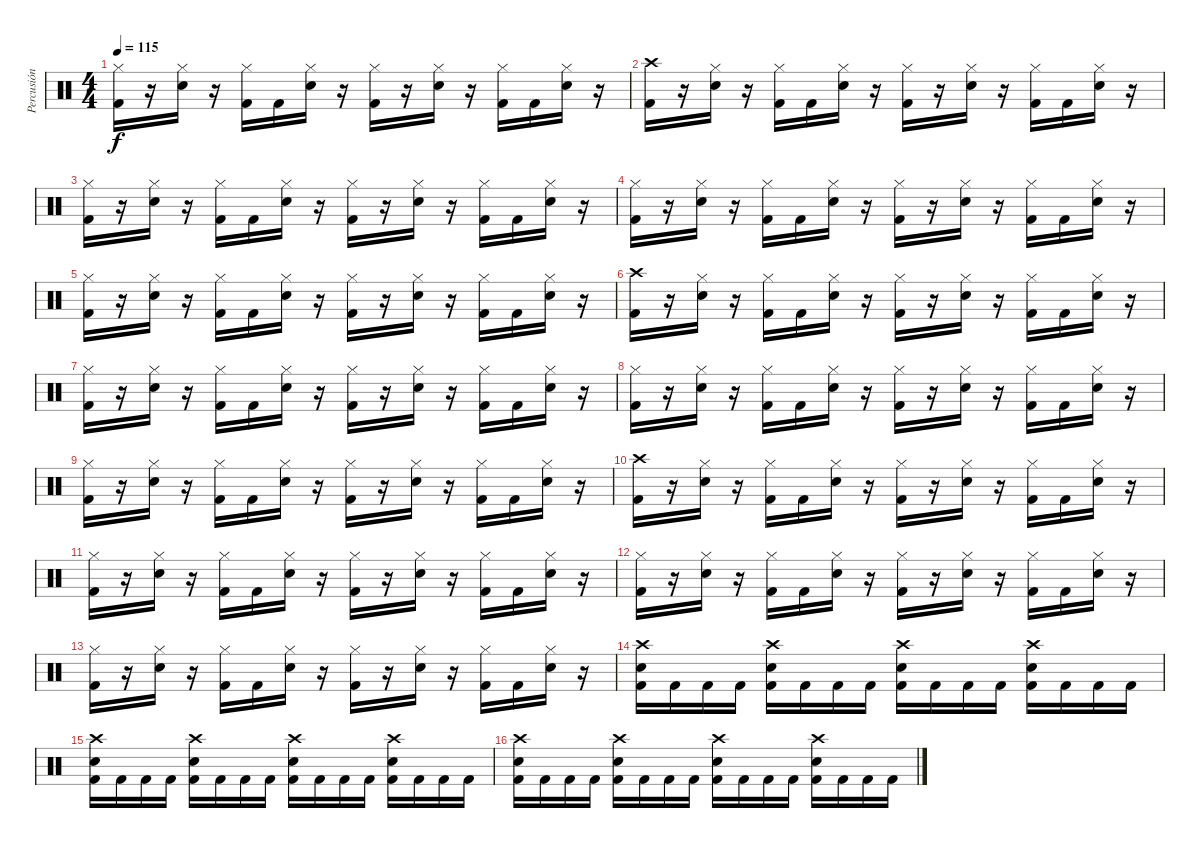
\track ("Percusión" "Percusión") {instrument percussion}
\staff {score}
\articulation defaults
\ts (4 4)
\tempo 115
\clef neutral
\ks c
("Hi-Hat (closed)" "Kick (hit) 2").16{dy f} r.16 ("Hi-Hat (closed)" "Electric Snare (hit)").16 r.16 ("Hi-Hat (closed)" "Kick (hit) 2").16 "Kick (hit) 2".16 ("Hi-Hat (closed)" "Electric Snare (hit)").16 r.16 ("Hi-Hat (closed)" "Kick (hit) 2").16 r.16 ("Hi-Hat (closed)" "Electric Snare (hit)").16 r.16 ("Hi-Hat (closed)" "Kick (hit) 2").16 "Kick (hit) 2".16 ("Hi-Hat (closed)" "Electric Snare (hit)").16 r.16 |
("Crash high (hit)" "Kick (hit) 2").16 r.16 ("Hi-Hat (closed)" "Electric Snare (hit)").16 r.16 ("Hi-Hat (closed)" "Kick (hit) 2").16 "Kick (hit) 2".16 ("Hi-Hat (closed)" "Electric Snare (hit)").16 r.16 ("Hi-Hat (closed)" "Kick (hit) 2").16 r.16 ("Hi-Hat (closed)" "Electric Snare (hit)").16 r.16 ("Hi-Hat (closed)" "Kick (hit) 2").16 "Kick (hit) 2".16 ("Hi-Hat (closed)" "Electric Snare (hit)").16 r.16 |
("Hi-Hat (closed)" "Kick (hit) 2").16 r.16 ("Hi-Hat (closed)" "Electric Snare (hit)").16 r.16 ("Hi-Hat (closed)" "Kick (hit) 2").16 "Kick (hit) 2".16 ("Hi-Hat (closed)" "Electric Snare (hit)").16 r.16 ("Hi-Hat (closed)" "Kick (hit) 2").16 r.16 ("Hi-Hat (closed)" "Electric Snare (hit)").16 r.16 ("Hi-Hat (closed)" "Kick (hit) 2").16 "Kick (hit) 2".16 ("Hi-Hat (closed)" "Electric Snare (hit)").16 r.16 |
("Hi-Hat (closed)" "Kick (hit) 2").16 r.16 ("Hi-Hat (closed)" "Electric Snare (hit)").16 r.16 ("Hi-Hat (closed)" "Kick (hit) 2").16 "Kick (hit) 2".16 ("Hi-Hat (closed)" "Electric Snare (hit)").16 r.16 ("Hi-Hat (closed)" "Kick (hit) 2").16 r.16 ("Hi-Hat (closed)" "Electric Snare (hit)").16 r.16 ("Hi-Hat (closed)" "Kick (hit) 2").16 "Kick (hit) 2".16 ("Hi-Hat (closed)" "Electric Snare (hit)").16 r.16 |
("Hi-Hat (closed)" "Kick (hit) 2").16 r.16 ("Hi-Hat (closed)" "Electric Snare (hit)").16 r.16 ("Hi-Hat (closed)" "Kick (hit) 2").16 "Kick (hit) 2".16 ("Hi-Hat (closed)" "Electric Snare (hit)").16 r.16 ("Hi-Hat (closed)" "Kick (hit) 2").16 r.16 ("Hi-Hat (closed)" "Electric Snare (hit)").16 r.16 ("Hi-Hat (closed)" "Kick (hit) 2").16 "Kick (hit) 2".16 ("Hi-Hat (closed)" "Electric Snare (hit)").16 r.16 |
("Crash high (hit)" "Kick (hit) 2").16 r.16 ("Hi-Hat (closed)" "Electric Snare (hit)").16 r.16 ("Hi-Hat (closed)" "Kick (hit) 2").16 "Kick (hit) 2".16 ("Hi-Hat (closed)" "Electric Snare (hit)").16 r.16 ("Hi-Hat (closed)" "Kick (hit) 2").16 r.16 ("Hi-Hat (closed)" "Electric Snare (hit)").16 r.16 ("Hi-Hat (closed)" "Kick (hit) 2").16 "Kick (hit) 2".16 ("Hi-Hat (closed)" "Electric Snare (hit)").16 r.16 |
("Hi-Hat (closed)" "Kick (hit) 2").16 r.16 ("Hi-Hat (closed)" "Electric Snare (hit)").16 r.16 ("Hi-Hat (closed)" "Kick (hit) 2").16 "Kick (hit) 2".16 ("Hi-Hat (closed)" "Electric Snare (hit)").16 r.16 ("Hi-Hat (closed)" "Kick (hit) 2").16 r.16 ("Hi-Hat (closed)" "Electric Snare (hit)").16 r.16 ("Hi-Hat (closed)" "Kick (hit) 2").16 "Kick (hit) 2".16 ("Hi-Hat (closed)" "Electric Snare (hit)").16 r.16 |
("Hi-Hat (closed)" "Kick (hit) 2").16 r.16 ("Hi-Hat (closed)" "Electric Snare (hit)").16 r.16 ("Hi-Hat (closed)" "Kick (hit) 2").16 "Kick (hit) 2".16 ("Hi-Hat (closed)" "Electric Snare (hit)").16 r.16 ("Hi-Hat (closed)" "Kick (hit) 2").16 r.16 ("Hi-Hat (closed)" "Electric Snare (hit)").16 r.16 ("Hi-Hat (closed)" "Kick (hit) 2").16 "Kick (hit) 2".16 ("Hi-Hat (closed)" "Electric Snare (hit)").16 r.16 |
("Hi-Hat (closed)" "Kick (hit) 2").16 r.16 ("Hi-Hat (closed)" "Electric Snare (hit)").16 r.16 ("Hi-Hat (closed)" "Kick (hit) 2").16 "Kick (hit) 2".16 ("Hi-Hat (closed)" "Electric Snare (hit)").16 r.16 ("Hi-Hat (closed)" "Kick (hit) 2").16 r.16 ("Hi-Hat (closed)" "Electric Snare (hit)").16 r.16 ("Hi-Hat (closed)" "Kick (hit) 2").16 "Kick (hit) 2".16 ("Hi-Hat (closed)" "Electric Snare (hit)").16 r.16 |
("Crash high (hit)" "Kick (hit) 2").16 r.16 ("Hi-Hat (closed)" "Electric Snare (hit)").16 r.16 ("Hi-Hat (closed)" "Kick (hit) 2").16 "Kick (hit) 2".16 ("Hi-Hat (closed)" "Electric Snare (hit)").16 r.16 ("Hi-Hat (closed)" "Kick (hit) 2").16 r.16 ("Hi-Hat (closed)" "Electric Snare (hit)").16 r.16 ("Hi-Hat (closed)" "Kick (hit) 2").16 "Kick (hit) 2".16 ("Hi-Hat (closed)" "Electric Snare (hit)").16 r.16 |
("Hi-Hat (closed)" "Kick (hit) 2").16 r.16 ("Hi-Hat (closed)" "Electric Snare (hit)").16 r.16 ("Hi-Hat (closed)" "Kick (hit) 2").16 "Kick (hit) 2".16 ("Hi-Hat (closed)" "Electric Snare (hit)").16 r.16 ("Hi-Hat (closed)" "Kick (hit) 2").16 r.16 ("Hi-Hat (closed)" "Electric Snare (hit)").16 r.16 ("Hi-Hat (closed)" "Kick (hit) 2").16 "Kick (hit) 2".16 ("Hi-Hat (closed)" "Electric Snare (hit)").16 r.16 |
("Hi-Hat (closed)" "Kick (hit) 2").16 r.16 ("Hi-Hat (closed)" "Electric Snare (hit)").16 r.16 ("Hi-Hat (closed)" "Kick (hit) 2").16 "Kick (hit) 2".16 ("Hi-Hat (closed)" "Electric Snare (hit)").16 r.16 ("Hi-Hat (closed)" "Kick (hit) 2").16 r.16 ("Hi-Hat (closed)" "Electric Snare (hit)").16 r.16 ("Hi-Hat (closed)" "Kick (hit) 2").16 "Kick (hit) 2".16 ("Hi-Hat (closed)" "Electric Snare (hit)").16 r.16 |
("Hi-Hat (closed)" "Kick (hit) 2").16 r.16 ("Hi-Hat (closed)" "Electric Snare (hit)").16 r.16 ("Hi-Hat (closed)" "Kick (hit) 2").16 "Kick (hit) 2".16 ("Hi-Hat (closed)" "Electric Snare (hit)").16 r.16 ("Hi-Hat (closed)" "Kick (hit) 2").16 r.16 ("Hi-Hat (closed)" "Electric Snare (hit)").16 r.16 ("Hi-Hat (closed)" "Kick (hit) 2").16 "Kick (hit) 2".16 ("Hi-Hat (closed)" "Electric Snare (hit)").16 r.16 |
("Crash high (hit)" "Electric Snare (hit)" "Kick (hit) 2").16 "Kick (hit) 2".16 "Kick (hit) 2".16 "Kick (hit) 2".16 ("Crash high (hit)" "Electric Snare (hit)" "Kick (hit) 2").16 "Kick (hit) 2".16 "Kick (hit) 2".16 "Kick (hit) 2".16 ("Crash high (hit)" "Electric Snare (hit)" "Kick (hit) 2").16 "Kick (hit) 2".16 "Kick (hit) 2".16 "Kick (hit) 2".16 ("Crash high (hit)" "Electric Snare (hit)" "Kick (hit) 2").16 "Kick (hit) 2".16 "Kick (hit) 2".16 "Kick (hit) 2".16 |
("Crash high (hit)" "Electric Snare (hit)" "Kick (hit) 2").16 "Kick (hit) 2".16 "Kick (hit) 2".16 "Kick (hit) 2".16 ("Crash high (hit)" "Electric Snare (hit)" "Kick (hit) 2").16 "Kick (hit) 2".16 "Kick (hit) 2".16 "Kick (hit) 2".16 ("Crash high (hit)" "Electric Snare (hit)" "Kick (hit) 2").16 "Kick (hit) 2".16 "Kick (hit) 2".16 "Kick (hit) 2".16 ("Crash high (hit)" "Electric Snare (hit)" "Kick (hit) 2").16 "Kick (hit) 2".16 "Kick (hit) 2".16 "Kick (hit) 2".16 |
("Crash high (hit)" "Electric Snare (hit)" "Kick (hit) 2").16 "Kick (hit) 2".16 "Kick (hit) 2".16 "Kick (hit) 2".16 ("Crash high (hit)" "Electric Snare (hit)" "Kick (hit) 2").16 "Kick (hit) 2".16 "Kick (hit) 2".16 "Kick (hit) 2".16 ("Crash high (hit)" "Electric Snare (hit)" "Kick (hit) 2").16 "Kick (hit) 2".16 "Kick (hit) 2".16 "Kick (hit) 2".16 ("Crash high (hit)" "Electric Snare (hit)" "Kick (hit) 2").16 "Kick (hit) 2".16 "Kick (hit) 2".16 "Kick (hit) 2".16
